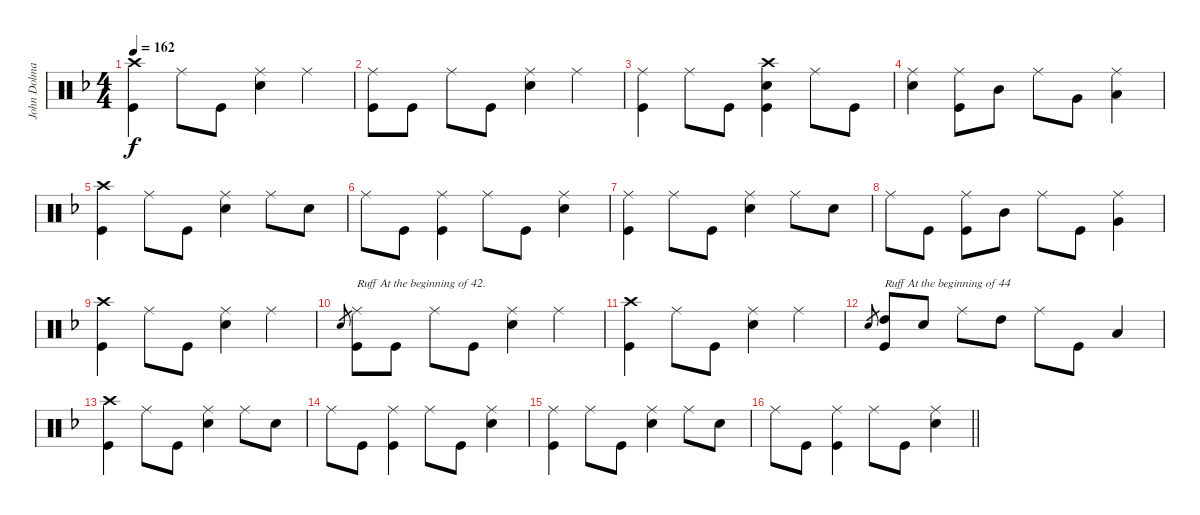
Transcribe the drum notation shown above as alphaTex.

\track ("John Dolmayan" "John Dolma") {instrument percussion}
\staff {score}
\articulation defaults
\ts (4 4)
\tempo 162
\clef neutral
\ks dminor
("Crash high (hit)" "Kick (hit)").4{dy f} "Ride (middle)".8 "Kick (hit)".8 ("Ride (middle)" "Snare (hit) 2").4 "Ride (middle)".4 |
("Ride (middle)" "Kick (hit)").8 "Kick (hit)".8 "Ride (middle)".8 "Kick (hit)".8 ("Ride (middle)" "Snare (hit) 2").4 "Ride (middle)".4 |
("Ride (middle)" "Kick (hit)").4 "Ride (middle)".8 "Kick (hit)".8 ("Crash high (hit)" "Snare (hit) 2" "Kick (hit)").4 "Ride (middle)".8 "Kick (hit)".8 |
("Ride (middle)" "Snare (hit) 2").4 ("Ride (middle)" "Kick (hit)").8 "Mid Tom (hit)".8 "Ride (middle)".8 "Very Low Tom (hit)".8 ("Ride (middle)" "Low Floor Tom (hit)").4 |
("Crash high (hit)" "Kick (hit)").4 "Ride (middle)".8 "Kick (hit)".8 ("Ride (middle)" "Snare (hit) 2").4 "Ride (middle)".8 "Snare (hit) 2".8 |
"Ride (middle)".8 "Kick (hit)".8 ("Ride (middle)" "Kick (hit)").4 "Ride (middle)".8 "Kick (hit)".8 ("Ride (middle)" "Snare (hit) 2").4 |
("Kick (hit)" "Ride (middle)").4 "Ride (middle)".8 "Kick (hit)".8 ("Ride (middle)" "Snare (hit) 2").4 "Ride (middle)".8 "Snare (hit) 2".8 |
"Ride (middle)".8 "Kick (hit)".8 ("Ride (middle)" "Kick (hit)").8 "Mid Tom (hit)".8 "Ride (middle)".8 "Kick (hit)".8 ("Very Low Tom (hit)" "Ride (middle)").4 |
("Crash high (hit)" "Kick (hit)").4 "Ride (middle)".8 "Kick (hit)".8 ("Ride (middle)" "Snare (hit) 2").4 "Ride (middle)".4 |
"Snare (hit) 2".8{gr} ("Ride (middle)" "Kick (hit)").8{txt "Ruff At the beginning of 42."} "Kick (hit)".8 "Ride (middle)".8 "Kick (hit)".8 ("Ride (middle)" "Snare (hit) 2").4 "Ride (middle)".4 |
("Crash high (hit)" "Kick (hit)").4 "Ride (middle)".8 "Kick (hit)".8 ("Ride (middle)" "Snare (hit) 2").4 "Ride (middle)".4 |
"Snare (hit) 2".8{gr} ("High Tom (hit)" "Kick (hit)").8{txt "Ruff At the beginning of 44"} "Snare (hit) 2".8 "Ride (middle)".8 "High Tom (hit)".8 "Ride (middle)".8 "Kick (hit)".8 "Low Floor Tom (hit)".4 |
("Crash high (hit)" "Kick (hit)").4 "Ride (middle)".8 "Kick (hit)".8 ("Ride (middle)" "Snare (hit) 2").4 "Ride (middle)".8 "Snare (hit) 2".8 |
"Ride (middle)".8 "Kick (hit)".8 ("Ride (middle)" "Kick (hit)").4 "Ride (middle)".8 "Kick (hit)".8 ("Ride (middle)" "Snare (hit) 2").4 |
("Kick (hit)" "Ride (middle)").4 "Ride (middle)".8 "Kick (hit)".8 ("Ride (middle)" "Snare (hit) 2").4 "Ride (middle)".8 "Snare (hit) 2".8 |
\barLineRight lightlight "Ride (middle)".8 "Kick (hit)".8
("Ride (middle)" "Kick (hit)").4 "Ride (middle)".8 "Kick (hit)".8 ("Ride (middle)" "Snare (hit) 2").4
